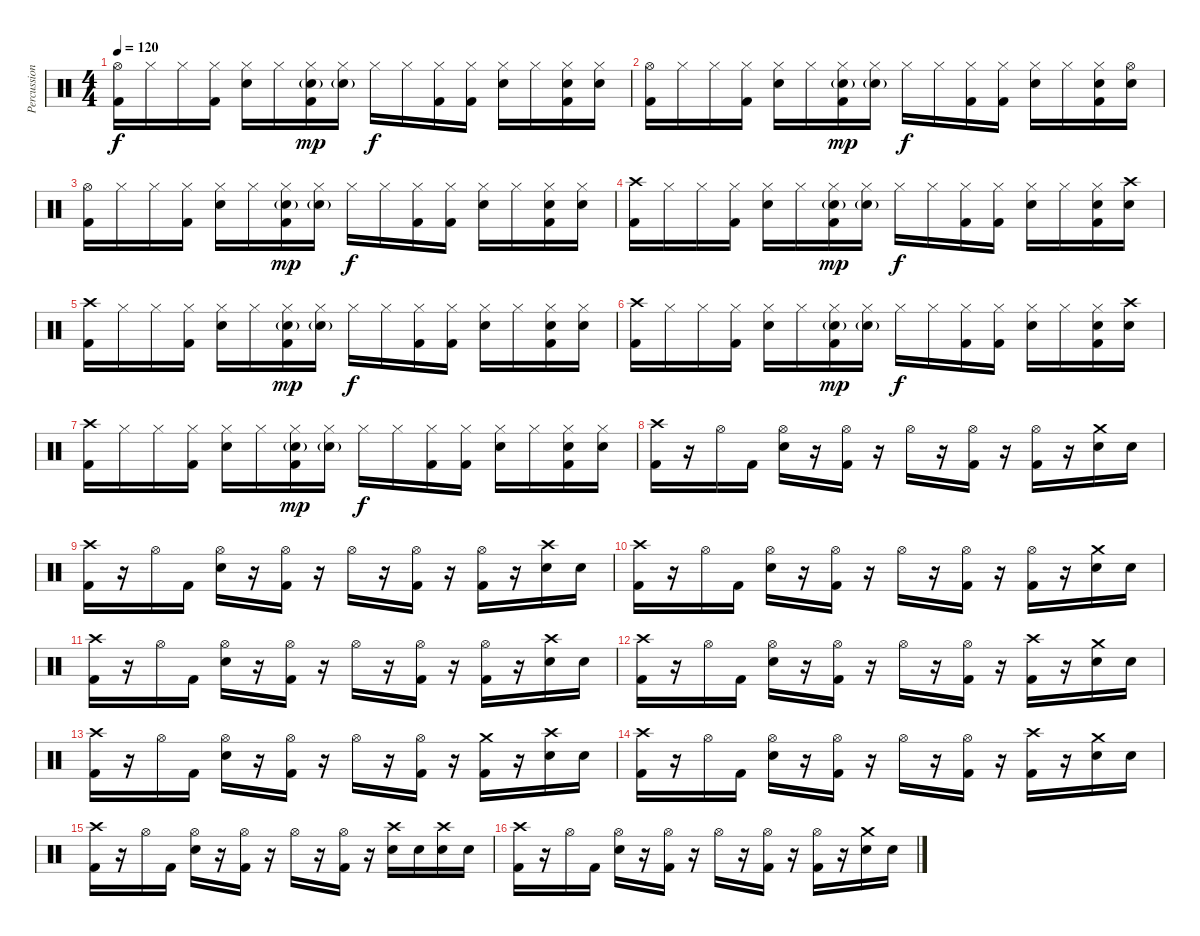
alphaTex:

\track ("Percussion" "Percussion") {instrument percussion}
\staff {score}
\articulation defaults
\ts (4 4)
\tempo 120
\clef neutral
\ks c
("Hi-Hat (open)" "Kick (hit) 2").16{dy f} "Hi-Hat (closed)".16 "Hi-Hat (closed)".16 ("Hi-Hat (closed)" "Kick (hit) 2").16 ("Hi-Hat (closed)" "Snare (hit) 2").16 "Hi-Hat (closed)".16 ("Hi-Hat (closed)" "Snare (hit) 2"{g} "Kick (hit) 2").16{dy mp} ("Hi-Hat (closed)" "Snare (hit) 2"{g}).16 "Hi-Hat (closed)".16{dy f} "Hi-Hat (closed)".16 ("Hi-Hat (closed)" "Kick (hit) 2").16 ("Hi-Hat (closed)" "Kick (hit) 2").16 ("Hi-Hat (closed)" "Snare (hit) 2").16 "Hi-Hat (closed)".16 ("Hi-Hat (closed)" "Snare (hit) 2" "Kick (hit) 2").16 ("Hi-Hat (closed)" "Snare (hit) 2").16 |
("Hi-Hat (open)" "Kick (hit) 2").16 "Hi-Hat (closed)".16 "Hi-Hat (closed)".16 ("Hi-Hat (closed)" "Kick (hit) 2").16 ("Hi-Hat (closed)" "Snare (hit) 2").16 "Hi-Hat (closed)".16 ("Hi-Hat (closed)" "Snare (hit) 2"{g} "Kick (hit) 2").16{dy mp} ("Hi-Hat (closed)" "Snare (hit) 2"{g}).16 "Hi-Hat (closed)".16{dy f} "Hi-Hat (closed)".16 ("Hi-Hat (closed)" "Kick (hit) 2").16 ("Hi-Hat (closed)" "Kick (hit) 2").16 ("Hi-Hat (closed)" "Snare (hit) 2").16 "Hi-Hat (closed)".16 ("Hi-Hat (closed)" "Snare (hit) 2" "Kick (hit) 2").16 ("Hi-Hat (open)" "Snare (hit) 2").16 |
("Hi-Hat (open)" "Kick (hit) 2").16 "Hi-Hat (closed)".16 "Hi-Hat (closed)".16 ("Hi-Hat (closed)" "Kick (hit) 2").16 ("Hi-Hat (closed)" "Snare (hit) 2").16 "Hi-Hat (closed)".16 ("Hi-Hat (closed)" "Snare (hit) 2"{g} "Kick (hit) 2").16{dy mp} ("Hi-Hat (closed)" "Snare (hit) 2"{g}).16 "Hi-Hat (closed)".16{dy f} "Hi-Hat (closed)".16 ("Hi-Hat (closed)" "Kick (hit) 2").16 ("Hi-Hat (closed)" "Kick (hit) 2").16 ("Hi-Hat (closed)" "Snare (hit) 2").16 "Hi-Hat (closed)".16 ("Hi-Hat (closed)" "Snare (hit) 2" "Kick (hit) 2").16 ("Hi-Hat (closed)" "Snare (hit) 2").16 |
("Crash high (hit)" "Kick (hit) 2").16 "Hi-Hat (closed)".16 "Hi-Hat (closed)".16 ("Hi-Hat (closed)" "Kick (hit) 2").16 ("Hi-Hat (closed)" "Snare (hit) 2").16 "Hi-Hat (closed)".16 ("Hi-Hat (closed)" "Snare (hit) 2"{g} "Kick (hit) 2").16{dy mp} ("Hi-Hat (closed)" "Snare (hit) 2"{g}).16 "Hi-Hat (closed)".16{dy f} "Hi-Hat (closed)".16 ("Hi-Hat (closed)" "Kick (hit) 2").16 ("Hi-Hat (closed)" "Kick (hit) 2").16 ("Hi-Hat (closed)" "Snare (hit) 2").16 "Hi-Hat (closed)".16 ("Hi-Hat (closed)" "Snare (hit) 2" "Kick (hit) 2").16 ("Crash high (hit)" "Snare (hit) 2").16 |
("Crash high (hit)" "Kick (hit) 2").16 "Hi-Hat (closed)".16 "Hi-Hat (closed)".16 ("Hi-Hat (closed)" "Kick (hit) 2").16 ("Hi-Hat (closed)" "Snare (hit) 2").16 "Hi-Hat (closed)".16 ("Hi-Hat (closed)" "Snare (hit) 2"{g} "Kick (hit) 2").16{dy mp} ("Hi-Hat (closed)" "Snare (hit) 2"{g}).16 "Hi-Hat (closed)".16{dy f} "Hi-Hat (closed)".16 ("Hi-Hat (closed)" "Kick (hit) 2").16 ("Hi-Hat (closed)" "Kick (hit) 2").16 ("Hi-Hat (closed)" "Snare (hit) 2").16 "Hi-Hat (closed)".16 ("Hi-Hat (closed)" "Snare (hit) 2" "Kick (hit) 2").16 ("Hi-Hat (closed)" "Snare (hit) 2").16 |
("Crash high (hit)" "Kick (hit) 2").16 "Hi-Hat (closed)".16 "Hi-Hat (closed)".16 ("Hi-Hat (closed)" "Kick (hit) 2").16 ("Hi-Hat (closed)" "Snare (hit) 2").16 "Hi-Hat (closed)".16 ("Hi-Hat (closed)" "Snare (hit) 2"{g} "Kick (hit) 2").16{dy mp} ("Hi-Hat (closed)" "Snare (hit) 2"{g}).16 "Hi-Hat (closed)".16{dy f} "Hi-Hat (closed)".16 ("Hi-Hat (closed)" "Kick (hit) 2").16 ("Hi-Hat (closed)" "Kick (hit) 2").16 ("Hi-Hat (closed)" "Snare (hit) 2").16 "Hi-Hat (closed)".16 ("Hi-Hat (closed)" "Snare (hit) 2" "Kick (hit) 2").16 ("Crash high (hit)" "Snare (hit) 2").16 |
("Crash high (hit)" "Kick (hit) 2").16 "Hi-Hat (closed)".16 "Hi-Hat (closed)".16 ("Hi-Hat (closed)" "Kick (hit) 2").16 ("Hi-Hat (closed)" "Snare (hit) 2").16 "Hi-Hat (closed)".16 ("Hi-Hat (closed)" "Snare (hit) 2"{g} "Kick (hit) 2").16{dy mp} ("Hi-Hat (closed)" "Snare (hit) 2"{g}).16 "Hi-Hat (closed)".16{dy f} "Hi-Hat (closed)".16 ("Hi-Hat (closed)" "Kick (hit) 2").16 ("Hi-Hat (closed)" "Kick (hit) 2").16 ("Hi-Hat (closed)" "Snare (hit) 2").16 "Hi-Hat (closed)".16 ("Hi-Hat (closed)" "Snare (hit) 2" "Kick (hit) 2").16 ("Hi-Hat (closed)" "Snare (hit) 2").16 |
("Crash high (hit)" "Kick (hit) 2").16 r.16 "Hi-Hat (open)".16 "Kick (hit) 2".16 ("Hi-Hat (open)" "Snare (hit) 2").16 r.16 ("Hi-Hat (open)" "Kick (hit) 2").16 r.16 "Hi-Hat (open)".16 r.16 ("Hi-Hat (open)" "Kick (hit) 2").16 r.16 ("Hi-Hat (open)" "Kick (hit) 2").16 r.16 ("Crash medium (hit)" "Snare (hit) 2").16 "Snare (hit) 2".16 |
("Crash high (hit)" "Kick (hit) 2").16 r.16 "Hi-Hat (open)".16 "Kick (hit) 2".16 ("Hi-Hat (open)" "Snare (hit) 2").16 r.16 ("Hi-Hat (open)" "Kick (hit) 2").16 r.16 "Hi-Hat (open)".16 r.16 ("Hi-Hat (open)" "Kick (hit) 2").16 r.16 ("Hi-Hat (open)" "Kick (hit) 2").16 r.16 ("Crash high (hit)" "Snare (hit) 2").16 "Snare (hit) 2".16 |
("Crash high (hit)" "Kick (hit) 2").16 r.16 "Hi-Hat (open)".16 "Kick (hit) 2".16 ("Hi-Hat (open)" "Snare (hit) 2").16 r.16 ("Hi-Hat (open)" "Kick (hit) 2").16 r.16 "Hi-Hat (open)".16 r.16 ("Hi-Hat (open)" "Kick (hit) 2").16 r.16 ("Hi-Hat (open)" "Kick (hit) 2").16 r.16 ("Crash medium (hit)" "Snare (hit) 2").16 "Snare (hit) 2".16 |
("Crash high (hit)" "Kick (hit) 2").16 r.16 "Hi-Hat (open)".16 "Kick (hit) 2".16 ("Hi-Hat (open)" "Snare (hit) 2").16 r.16 ("Hi-Hat (open)" "Kick (hit) 2").16 r.16 "Hi-Hat (open)".16 r.16 ("Hi-Hat (open)" "Kick (hit) 2").16 r.16 ("Hi-Hat (open)" "Kick (hit) 2").16 r.16 ("Crash high (hit)" "Snare (hit) 2").16 "Snare (hit) 2".16 |
("Crash high (hit)" "Kick (hit) 2").16 r.16 "Hi-Hat (open)".16 "Kick (hit) 2".16 ("Hi-Hat (open)" "Snare (hit) 2").16 r.16 ("Hi-Hat (open)" "Kick (hit) 2").16 r.16 "Hi-Hat (open)".16 r.16 ("Hi-Hat (open)" "Kick (hit) 2").16 r.16 ("Crash high (hit)" "Kick (hit) 2").16 r.16 ("Crash medium (hit)" "Snare (hit) 2").16 "Snare (hit) 2".16 |
("Crash high (hit)" "Kick (hit) 2").16 r.16 "Hi-Hat (open)".16 "Kick (hit) 2".16 ("Hi-Hat (open)" "Snare (hit) 2").16 r.16 ("Hi-Hat (open)" "Kick (hit) 2").16 r.16 "Hi-Hat (open)".16 r.16 ("Hi-Hat (open)" "Kick (hit) 2").16 r.16 ("Crash medium (hit)" "Kick (hit) 2").16 r.16 ("Crash high (hit)" "Snare (hit) 2").16 "Snare (hit) 2".16 |
("Crash high (hit)" "Kick (hit) 2").16 r.16 "Hi-Hat (open)".16 "Kick (hit) 2".16 ("Hi-Hat (open)" "Snare (hit) 2").16 r.16 ("Hi-Hat (open)" "Kick (hit) 2").16 r.16 "Hi-Hat (open)".16 r.16 ("Hi-Hat (open)" "Kick (hit) 2").16 r.16 ("Crash high (hit)" "Kick (hit) 2").16 r.16 ("Crash medium (hit)" "Snare (hit) 2").16 "Snare (hit) 2".16 |
("Crash high (hit)" "Kick (hit) 2").16 r.16 "Hi-Hat (open)".16 "Kick (hit) 2".16 ("Hi-Hat (open)" "Snare (hit) 2").16 r.16 ("Hi-Hat (open)" "Kick (hit) 2").16 r.16 "Hi-Hat (open)".16 r.16 ("Hi-Hat (open)" "Kick (hit) 2").16 r.16 ("Crash high (hit)" "Snare (hit) 2").16 "Snare (hit) 2".16 ("Crash high (hit)" "Snare (hit) 2").16 "Snare (hit) 2".16 |
("Crash high (hit)" "Kick (hit) 2").16 r.16 "Hi-Hat (open)".16 "Kick (hit) 2".16 ("Hi-Hat (open)" "Snare (hit) 2").16 r.16 ("Hi-Hat (open)" "Kick (hit) 2").16 r.16 "Hi-Hat (open)".16 r.16 ("Hi-Hat (open)" "Kick (hit) 2").16 r.16 ("Hi-Hat (open)" "Kick (hit) 2").16 r.16 ("Crash medium (hit)" "Snare (hit) 2").16 "Snare (hit) 2".16
